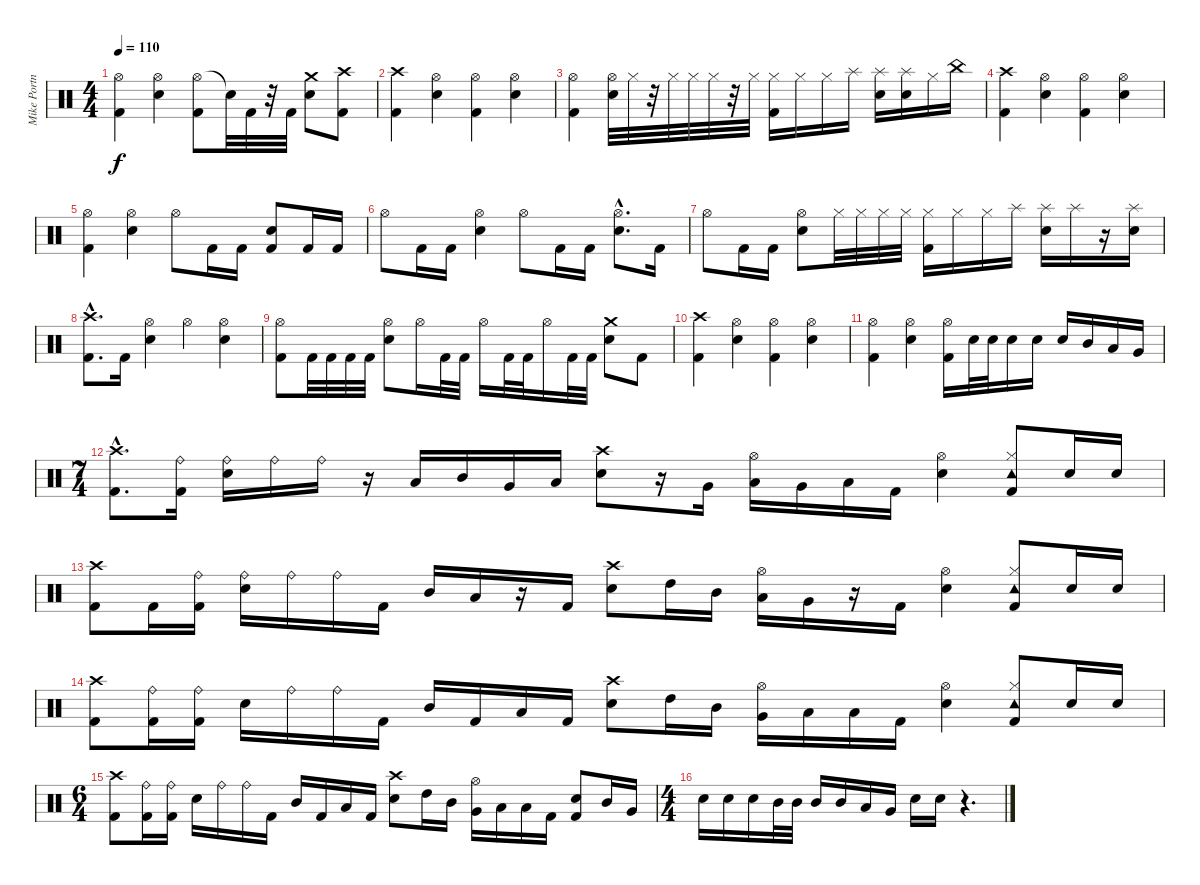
\track ("Mike Portnoy - Drums" "Mike Portn") {instrument percussion}
\staff {score}
\articulation defaults
\ts (4 4)
\tempo 110
\clef neutral
\ks c
("Kick (hit) 2" "Hi-Hat (open)").4{dy f} ("Electric Snare (hit)" "Hi-Hat (open)").4 ("Hi-Hat (open)" "Kick (hit) 2").8 "Snare (hit)"{t}.32 "Kick (hit) 2".32 r.32 "Kick (hit) 2".32 ("Electric Snare (hit)" "Crash medium (hit)").8 ("Kick (hit) 2" "Crash high (hit)").8 |
("Kick (hit) 2" "Crash high (hit)").4 ("Electric Snare (hit)" "Hi-Hat (open)").4 ("Kick (hit) 2" "Hi-Hat (open)").4 ("Electric Snare (hit)" "Hi-Hat (open)").4 |
("Kick (hit) 2" "Hi-Hat (open)").4 ("Electric Snare (hit)" "Hi-Hat (open)").32 "Hi-Hat (closed)".32 r.32 "Hi-Hat (closed)".32 "Hi-Hat (closed)".32 "Hi-Hat (closed)".32 r.32 "Hi-Hat (closed)".32 ("Kick (hit) 2" "Hi-Hat (closed)").16 "Hi-Hat (closed)".16 "Hi-Hat (closed)".16 "Splash (hit)".16 ("Splash (hit)" "Electric Snare (hit)").16 ("Electric Snare (hit)" "Splash (hit)").16 "Hi-Hat (closed)".16 "China (hit)".16 |
("Crash high (hit)" "Kick (hit) 2").4 ("Electric Snare (hit)" "Hi-Hat (open)").4 ("Kick (hit) 2" "Hi-Hat (open)").4 ("Electric Snare (hit)" "Hi-Hat (open)").4 |
("Kick (hit) 2" "Hi-Hat (open)").4 ("Electric Snare (hit)" "Hi-Hat (open)").4 "Hi-Hat (open)".8 "Kick (hit) 2".16 "Kick (hit) 2".16 ("Electric Snare (hit)" "Kick (hit) 2").8 "Kick (hit) 2".16 "Kick (hit) 2".16 |
"Hi-Hat (open)".8 "Kick (hit) 2".16 "Kick (hit) 2".16 ("Hi-Hat (open)" "Electric Snare (hit)").4 "Hi-Hat (open)".8 "Kick (hit) 2".16 "Kick (hit) 2".16 ("Hi-Hat (open)"{hac} "Electric Snare (hit)"{hac}).8{d} "Kick (hit) 2".16 |
"Hi-Hat (open)".8 "Kick (hit) 2".16 "Kick (hit) 2".16 ("Electric Snare (hit)" "Hi-Hat (open)").8 "Hi-Hat (closed)".32 "Hi-Hat (closed)".32 "Hi-Hat (closed)".32 "Hi-Hat (closed)".32 ("Kick (hit) 2" "Hi-Hat (closed)").16 "Hi-Hat (closed)".16 "Hi-Hat (closed)".16 "Splash (hit)".16 ("Splash (hit)" "Electric Snare (hit)").16 "Splash (hit)".16 r.16 ("Electric Snare (hit)" "Splash (hit)").16 |
("Crash high (hit)"{hac} "Kick (hit) 2"{hac}).8{d} "Kick (hit) 2".16 ("Electric Snare (hit)" "Hi-Hat (open)").4 "Hi-Hat (open)".4 ("Electric Snare (hit)" "Hi-Hat (open)").4 |
("Hi-Hat (open)" "Kick (hit) 2").8 "Kick (hit) 2".32 "Kick (hit) 2".32 "Kick (hit) 2".32 "Kick (hit) 2".32 ("Electric Snare (hit)" "Hi-Hat (open)").8 "Hi-Hat (open)".16 "Kick (hit) 2".32 "Kick (hit) 2".32 "Hi-Hat (open)".16 "Kick (hit) 2".32 "Kick (hit) 2".32 "Hi-Hat (open)".16 "Kick (hit) 2".32 "Kick (hit) 2".32 ("Electric Snare (hit)" "Crash medium (hit)").8 "Kick (hit) 2".8 |
("Kick (hit) 2" "Crash high (hit)").4 ("Electric Snare (hit)" "Hi-Hat (open)").4 ("Kick (hit) 2" "Hi-Hat (open)").4 ("Electric Snare (hit)" "Hi-Hat (open)").4 |
("Kick (hit) 2" "Hi-Hat (open)").4 ("Electric Snare (hit)" "Hi-Hat (open)").4 ("Kick (hit) 2" "Hi-Hat (open)").16 "Electric Snare (hit)".32 "Electric Snare (hit)".32 "Electric Snare (hit)".16 "Electric Snare (hit)".16 "Electric Snare (hit)".16 "Mid Tom (hit)".16 "Low Tom (hit)".16 "Very Low Tom (hit)".16 |
\ts (7 4)
("Crash high (hit)"{hac} "Kick (hit) 2"{hac}).8{d} ("Kick (hit) 2" "Ride (bell)").16 ("Electric Snare (hit)" "Ride (bell)").16 "Ride (bell)".16 "Ride (bell)".16 r.16 "Low Tom (hit)".16 "Mid Tom (hit)".16 "Very Low Tom (hit)".16 "Low Floor Tom (hit)".16 ("Crash high (hit)" "Electric Snare (hit)").8 r.16 "Very Low Tom (hit)".16 ("Low Tom (hit)" "Hi-Hat (open)").16 "Very Low Tom (hit)".16 "Low Floor Tom (hit)".16 "Kick (hit) 2".16 ("Electric Snare (hit)" "Hi-Hat (open)").4 ("Tambourine (hit)" "Kick (hit) 2" "Hi-Hat (closed)").8 "Electric Snare (hit)".16 "Electric Snare (hit)".16 |
("Crash high (hit)" "Kick (hit) 2").8 "Kick (hit) 2".16 ("Kick (hit) 2" "Ride (bell)").16 ("Ride (bell)" "Electric Snare (hit)").16 "Ride (bell)".16 "Ride (bell)".16 "Kick (hit) 2".16 "Mid Tom (hit)".16 "Low Tom (hit)".16 r.16 "Kick (hit) 2".16 ("Crash high (hit)" "Electric Snare (hit)").8 "High Tom (hit)".16 "Mid Tom (hit)".16 ("Low Tom (hit)" "Hi-Hat (open)").16 "Very Low Tom (hit)".16 r.16 "Kick (hit) 2".16 ("Electric Snare (hit)" "Hi-Hat (open)").4 ("Tambourine (hit)" "Kick (hit) 2" "Hi-Hat (closed)").8 "Electric Snare (hit)".16 "Electric Snare (hit)".16 |
("Kick (hit) 2" "Crash high (hit)").8 ("Kick (hit) 2" "Ride (bell)").16 ("Kick (hit) 2" "Ride (bell)").16 "Electric Snare (hit)".16 "Ride (bell)".16 "Ride (bell)".16 "Kick (hit) 2".16 "Mid Tom (hit)".16 "Kick (hit) 2".16 "Low Tom (hit)".16 "Kick (hit) 2".16 ("Crash high (hit)" "Electric Snare (hit)").8 "High Tom (hit)".16 "Mid Tom (hit)".16 ("Hi-Hat (open)" "Very Low Tom (hit)").16 "Low Floor Tom (hit)".16 "Low Floor Tom (hit)".16 "Kick (hit) 2".16 ("Electric Snare (hit)" "Hi-Hat (open)").4 ("Tambourine (hit)" "Kick (hit) 2" "Hi-Hat (closed)").8 "Electric Snare (hit)".16 "Electric Snare (hit)".16 |
\ts (6 4)
("Crash high (hit)" "Kick (hit) 2").8 ("Kick (hit) 2" "Ride (bell)").16 ("Kick (hit) 2" "Ride (bell)").16 "Electric Snare (hit)".16 "Ride (bell)".16 "Ride (bell)".16 "Kick (hit) 2".16 "Mid Tom (hit)".16 "Kick (hit) 2".16 "Low Tom (hit)".16 "Kick (hit) 2".16 ("Crash high (hit)" "Electric Snare (hit)").8 "High Tom (hit)".16 "Mid Tom (hit)".16 ("Hi-Hat (open)" "Very Low Tom (hit)").16 "Low Floor Tom (hit)".16 "Low Floor Tom (hit)".16 "Kick (hit) 2".16 ("Electric Snare (hit)" "Kick (hit) 2").8 "Mid Tom (hit)".16 "Very Low Tom (hit)".16 |
\ts (4 4)
"Electric Snare (hit)".16 "Electric Snare (hit)".16 "Electric Snare (hit)".16 "Mid Tom (hit)".32 "Mid Tom (hit)".32 "Mid Tom (hit)".16 "Mid Tom (hit)".16 "Low Tom (hit)".16 "Very Low Tom (hit)".16 "Electric Snare (hit)".16 "Electric Snare (hit)".16 r.4{d}
